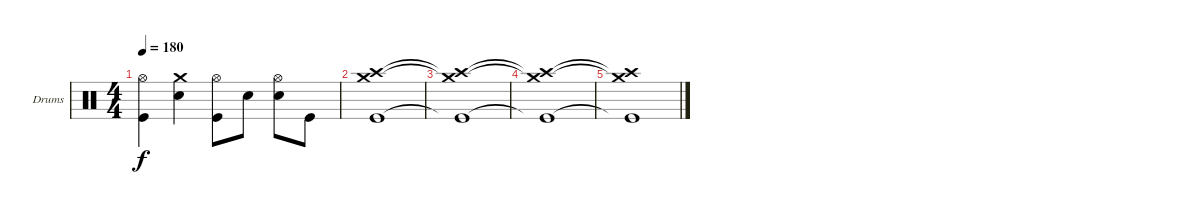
\defaultSystemsLayout 4
\bracketExtendMode groupsimilarinstruments
\firstSystemTrackNameOrientation horizontal
\otherSystemsTrackNameOrientation horizontal
\track ("Drumkit" "Drums") {instrument percussion}
\staff {score}
\articulation defaults
\ts (4 4)
\tempo 180
\clef neutral
\ks c
("Kick (hit)" "Hi-Hat (open)").4{dy f} ("Crash medium (hit)" "Snare (hit) 2").4 ("Kick (hit)" "Hi-Hat (open)").8 "Snare (hit) 2".8 ("Snare (hit) 2" "Hi-Hat (open)").8 "Kick (hit)".8 |
("Crash medium (hit)" "Crash high (hit)" "Kick (hit)").1 |
("Crash medium (hit)"{t} "Crash high (hit)"{t} "Kick (hit)"{t}).1 |
("Crash medium (hit)"{t} "Crash high (hit)"{t} "Kick (hit)"{t}).1 |
("Crash medium (hit)"{t} "Crash high (hit)"{t} "Kick (hit)"{t}).1
